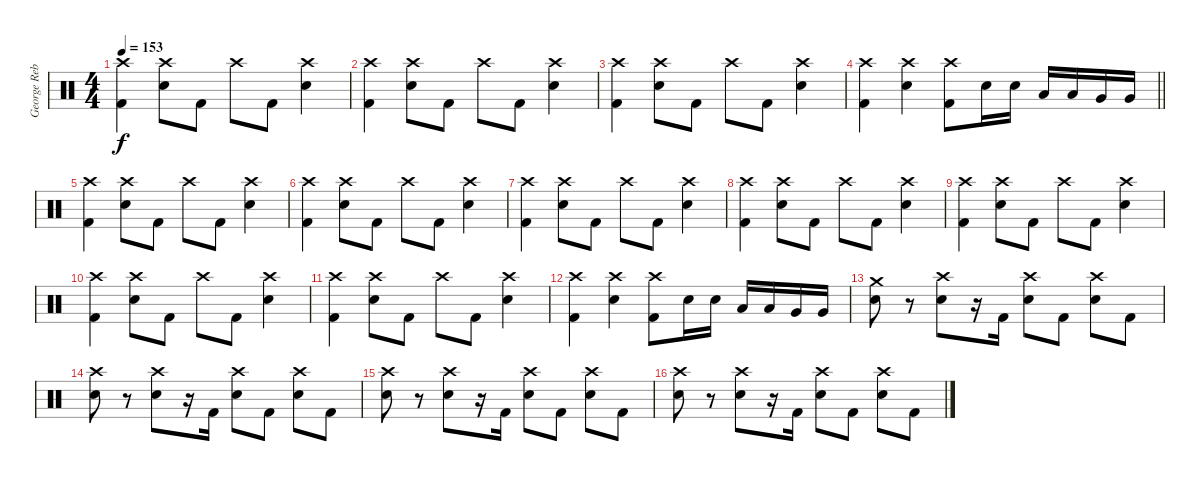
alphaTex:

\track ("George Rebelo (Drums)" "George Reb") {instrument percussion}
\staff {score}
\articulation defaults
\ts (4 4)
\tempo 153
\clef neutral
\ks c
("Crash high (hit)" "Kick (hit) 2").4{dy f} ("Crash high (hit)" "Electric Snare (hit)").8 "Kick (hit) 2".8 "Crash high (hit)".8 "Kick (hit) 2".8 ("Crash high (hit)" "Electric Snare (hit)").4 |
("Crash high (hit)" "Kick (hit) 2").4 ("Crash high (hit)" "Electric Snare (hit)").8 "Kick (hit) 2".8 "Crash high (hit)".8 "Kick (hit) 2".8 ("Crash high (hit)" "Electric Snare (hit)").4 |
("Crash high (hit)" "Kick (hit) 2").4 ("Crash high (hit)" "Electric Snare (hit)").8 "Kick (hit) 2".8 "Crash high (hit)".8 "Kick (hit) 2".8 ("Crash high (hit)" "Electric Snare (hit)").4 |
\barLineRight lightlight
("Crash high (hit)" "Kick (hit) 2").4 ("Crash high (hit)" "Electric Snare (hit)").4 ("Crash high (hit)" "Kick (hit) 2").8 "Electric Snare (hit)".16 "Electric Snare (hit)".16 "Low Tom (hit)".16 "Low Tom (hit)".16 "Very Low Tom (hit)".16 "Very Low Tom (hit)".16 |
("Crash high (hit)" "Kick (hit) 2").4 ("Crash high (hit)" "Electric Snare (hit)").8 "Kick (hit) 2".8 "Crash high (hit)".8 "Kick (hit) 2".8 ("Crash high (hit)" "Electric Snare (hit)").4 |
("Crash high (hit)" "Kick (hit) 2").4 ("Crash high (hit)" "Electric Snare (hit)").8 "Kick (hit) 2".8 "Crash high (hit)".8 "Kick (hit) 2".8 ("Crash high (hit)" "Electric Snare (hit)").4 |
("Crash high (hit)" "Kick (hit) 2").4 ("Crash high (hit)" "Electric Snare (hit)").8 "Kick (hit) 2".8 "Crash high (hit)".8 "Kick (hit) 2".8 ("Crash high (hit)" "Electric Snare (hit)").4 |
("Crash high (hit)" "Kick (hit) 2").4 ("Crash high (hit)" "Electric Snare (hit)").8 "Kick (hit) 2".8 "Crash high (hit)".8 "Kick (hit) 2".8 ("Crash high (hit)" "Electric Snare (hit)").4 |
("Crash high (hit)" "Kick (hit) 2").4 ("Crash high (hit)" "Electric Snare (hit)").8 "Kick (hit) 2".8 "Crash high (hit)".8 "Kick (hit) 2".8 ("Crash high (hit)" "Electric Snare (hit)").4 |
("Crash high (hit)" "Kick (hit) 2").4 ("Crash high (hit)" "Electric Snare (hit)").8 "Kick (hit) 2".8 "Crash high (hit)".8 "Kick (hit) 2".8 ("Crash high (hit)" "Electric Snare (hit)").4 |
("Crash high (hit)" "Kick (hit) 2").4 ("Crash high (hit)" "Electric Snare (hit)").8 "Kick (hit) 2".8 "Crash high (hit)".8 "Kick (hit) 2".8 ("Crash high (hit)" "Electric Snare (hit)").4 |
("Crash high (hit)" "Kick (hit) 2").4 ("Crash high (hit)" "Electric Snare (hit)").4 ("Crash high (hit)" "Kick (hit) 2").8 "Electric Snare (hit)".16 "Electric Snare (hit)".16 "Low Tom (hit)".16 "Low Tom (hit)".16 "Very Low Tom (hit)".16 "Very Low Tom (hit)".16 |
("Crash medium (hit)" "Electric Snare (hit)").8 r.8 ("Crash high (hit)" "Electric Snare (hit)").8 r.16 "Kick (hit) 2".16 ("Crash high (hit)" "Electric Snare (hit)").8 "Kick (hit) 2".8 ("Crash high (hit)" "Electric Snare (hit)").8 "Kick (hit) 2".8 |
("Crash high (hit)" "Electric Snare (hit)").8 r.8 ("Crash high (hit)" "Electric Snare (hit)").8 r.16 "Kick (hit) 2".16 ("Crash high (hit)" "Electric Snare (hit)").8 "Kick (hit) 2".8 ("Crash high (hit)" "Electric Snare (hit)").8 "Kick (hit) 2".8 |
("Crash high (hit)" "Electric Snare (hit)").8 r.8 ("Crash high (hit)" "Electric Snare (hit)").8 r.16 "Kick (hit) 2".16 ("Crash high (hit)" "Electric Snare (hit)").8 "Kick (hit) 2".8 ("Crash high (hit)" "Electric Snare (hit)").8 "Kick (hit) 2".8 |
("Crash high (hit)" "Electric Snare (hit)").8 r.8 ("Crash high (hit)" "Electric Snare (hit)").8 r.16 "Kick (hit) 2".16 ("Crash high (hit)" "Electric Snare (hit)").8 "Kick (hit) 2".8 ("Crash high (hit)" "Electric Snare (hit)").8 "Kick (hit) 2".8
